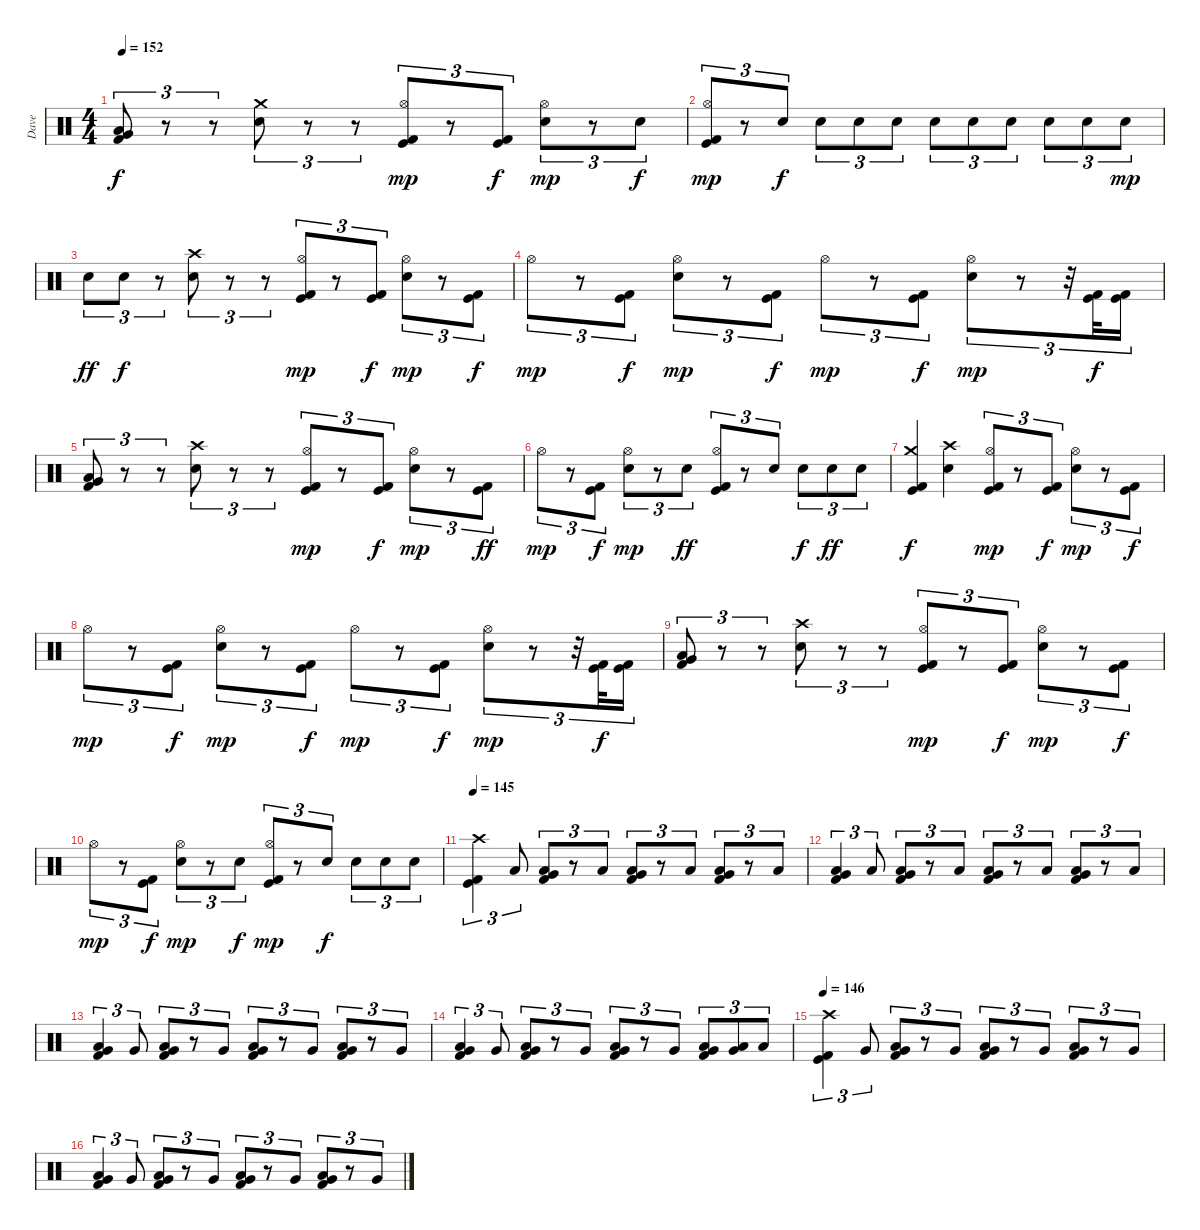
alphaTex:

\track ("Dave" "Dave") {instrument percussion}
\staff {score}
\articulation defaults
\ts (4 4)
\tempo 152
\clef neutral
\ks c
("Low Floor Tom (hit)" "Very Low Tom (hit)" "Kick (hit) 2").8{tu (3 2) dy f} r.8{tu (3 2)} r.8{tu (3 2)} ("Crash medium (hit)" "Electric Snare (hit)").8{tu (3 2)} r.8{tu (3 2)} r.8{tu (3 2)} ("Hi-Hat (open)" "Kick (hit)" "Kick (hit) 2").8{tu (3 2) dy mp} r.8{tu (3 2)} ("Kick (hit)" "Kick (hit) 2").8{tu (3 2) dy f} ("Hi-Hat (open)" "Electric Snare (hit)").8{tu (3 2) dy mp} r.8{tu (3 2)} "Electric Snare (hit)".8{tu (3 2) dy f} |
("Hi-Hat (open)" "Kick (hit)" "Kick (hit) 2").8{tu (3 2) dy mp} r.8{tu (3 2)} "Electric Snare (hit)".8{tu (3 2) dy f} "Electric Snare (hit)".8{tu (3 2)} "Electric Snare (hit)".8{tu (3 2)} "Electric Snare (hit)".8{tu (3 2)} "Electric Snare (hit)".8{tu (3 2)} "Electric Snare (hit)".8{tu (3 2)} "Electric Snare (hit)".8{tu (3 2)} "Electric Snare (hit)".8{tu (3 2)} "Electric Snare (hit)".8{tu (3 2)} "Electric Snare (hit)".8{tu (3 2) dy mp} |
"Electric Snare (hit)".8{tu (3 2) dy ff} "Electric Snare (hit)".8{tu (3 2) dy f} r.8{tu (3 2)} ("Crash high (hit)" "Electric Snare (hit)").8{tu (3 2)} r.8{tu (3 2)} r.8{tu (3 2)} ("Hi-Hat (open)" "Kick (hit)" "Kick (hit) 2").8{tu (3 2) dy mp} r.8{tu (3 2)} ("Kick (hit)" "Kick (hit) 2").8{tu (3 2) dy f} ("Hi-Hat (open)" "Electric Snare (hit)").8{tu (3 2) dy mp} r.8{tu (3 2)} ("Kick (hit)" "Kick (hit) 2").8{tu (3 2) dy f} |
"Hi-Hat (open)".8{tu (3 2) dy mp} r.8{tu (3 2)} ("Kick (hit)" "Kick (hit) 2").8{tu (3 2) dy f} ("Hi-Hat (open)" "Electric Snare (hit)").8{tu (3 2) dy mp} r.8{tu (3 2)} ("Kick (hit)" "Kick (hit) 2").8{tu (3 2) dy f} "Hi-Hat (open)".8{tu (3 2) dy mp} r.8{tu (3 2)} ("Kick (hit)" "Kick (hit) 2").8{tu (3 2) dy f} ("Hi-Hat (open)" "Electric Snare (hit)").8{tu (3 2) dy mp} r.8{tu (3 2)} r.32{tu (3 2)} ("Kick (hit)" "Kick (hit) 2").32{tu (3 2) dy f} ("Kick (hit)" "Kick (hit) 2").16{tu (3 2)} |
("Low Floor Tom (hit)" "Very Low Tom (hit)" "Kick (hit) 2").8{tu (3 2)} r.8{tu (3 2)} r.8{tu (3 2)} ("Crash high (hit)" "Electric Snare (hit)").8{tu (3 2)} r.8{tu (3 2)} r.8{tu (3 2)} ("Hi-Hat (open)" "Kick (hit)" "Kick (hit) 2").8{tu (3 2) dy mp} r.8{tu (3 2)} ("Kick (hit)" "Kick (hit) 2").8{tu (3 2) dy f} ("Hi-Hat (open)" "Electric Snare (hit)").8{tu (3 2) dy mp} r.8{tu (3 2)} ("Kick (hit)" "Kick (hit) 2").8{tu (3 2) dy ff} |
"Hi-Hat (open)".8{tu (3 2) dy mp} r.8{tu (3 2)} ("Kick (hit)" "Kick (hit) 2").8{tu (3 2) dy f} ("Hi-Hat (open)" "Electric Snare (hit)").8{tu (3 2) dy mp} r.8{tu (3 2)} "Electric Snare (hit)".8{tu (3 2) dy ff} ("Hi-Hat (open)" "Kick (hit)" "Kick (hit) 2").8{tu (3 2)} r.8{tu (3 2)} "Electric Snare (hit)".8{tu (3 2)} "Electric Snare (hit)".8{tu (3 2) dy f} "Electric Snare (hit)".8{tu (3 2) dy ff} "Electric Snare (hit)".8{tu (3 2)} |
("Crash medium (hit)" "Kick (hit)" "Kick (hit) 2").4{dy f} ("Crash high (hit)" "Electric Snare (hit)").4 ("Hi-Hat (open)" "Kick (hit)" "Kick (hit) 2").8{tu (3 2) dy mp} r.8{tu (3 2)} ("Kick (hit)" "Kick (hit) 2").8{tu (3 2) dy f} ("Hi-Hat (open)" "Electric Snare (hit)").8{tu (3 2) dy mp} r.8{tu (3 2)} ("Kick (hit)" "Kick (hit) 2").8{tu (3 2) dy f} |
"Hi-Hat (open)".8{tu (3 2) dy mp} r.8{tu (3 2)} ("Kick (hit)" "Kick (hit) 2").8{tu (3 2) dy f} ("Hi-Hat (open)" "Electric Snare (hit)").8{tu (3 2) dy mp} r.8{tu (3 2)} ("Kick (hit)" "Kick (hit) 2").8{tu (3 2) dy f} "Hi-Hat (open)".8{tu (3 2) dy mp} r.8{tu (3 2)} ("Kick (hit)" "Kick (hit) 2").8{tu (3 2) dy f} ("Hi-Hat (open)" "Electric Snare (hit)").8{tu (3 2) dy mp} r.8{tu (3 2)} r.32{tu (3 2)} ("Kick (hit)" "Kick (hit) 2").32{tu (3 2) dy f} ("Kick (hit)" "Kick (hit) 2").16{tu (3 2)} |
("Low Floor Tom (hit)" "Very Low Tom (hit)" "Kick (hit) 2").8{tu (3 2)} r.8{tu (3 2)} r.8{tu (3 2)} ("Crash high (hit)" "Electric Snare (hit)").8{tu (3 2)} r.8{tu (3 2)} r.8{tu (3 2)} ("Hi-Hat (open)" "Kick (hit)" "Kick (hit) 2").8{tu (3 2) dy mp} r.8{tu (3 2)} ("Kick (hit)" "Kick (hit) 2").8{tu (3 2) dy f} ("Hi-Hat (open)" "Electric Snare (hit)").8{tu (3 2) dy mp} r.8{tu (3 2)} ("Kick (hit)" "Kick (hit) 2").8{tu (3 2) dy f} |
"Hi-Hat (open)".8{tu (3 2) dy mp} r.8{tu (3 2)} ("Kick (hit)" "Kick (hit) 2").8{tu (3 2) dy f} ("Hi-Hat (open)" "Electric Snare (hit)").8{tu (3 2) dy mp} r.8{tu (3 2)} "Electric Snare (hit)".8{tu (3 2) dy f} ("Hi-Hat (open)" "Kick (hit)" "Kick (hit) 2").8{tu (3 2) dy mp} r.8{tu (3 2)} "Electric Snare (hit)".8{tu (3 2) dy f} "Electric Snare (hit)".8{tu (3 2)} "Electric Snare (hit)".8{tu (3 2)} "Electric Snare (hit)".8{tu (3 2)} |
\tempo 145
("Crash high (hit)" "Kick (hit)" "Kick (hit) 2").4{tu (3 2)} "Low Floor Tom (hit)".8{tu (3 2)} ("Low Floor Tom (hit)" "Very Low Tom (hit)" "Kick (hit) 2").8{tu (3 2) bd 120} r.8{tu (3 2)} "Low Floor Tom (hit)".8{tu (3 2)} ("Low Floor Tom (hit)" "Very Low Tom (hit)" "Kick (hit) 2").8{tu (3 2) bd 120} r.8{tu (3 2)} "Low Floor Tom (hit)".8{tu (3 2)} ("Low Floor Tom (hit)" "Very Low Tom (hit)" "Kick (hit) 2").8{tu (3 2) bd 120} r.8{tu (3 2)} "Low Floor Tom (hit)".8{tu (3 2)} |
("Low Floor Tom (hit)" "Very Low Tom (hit)" "Kick (hit) 2").4{tu (3 2) bd 120} "Low Floor Tom (hit)".8{tu (3 2)} ("Low Floor Tom (hit)" "Very Low Tom (hit)" "Kick (hit) 2").8{tu (3 2) bd 120} r.8{tu (3 2)} "Low Floor Tom (hit)".8{tu (3 2)} ("Low Floor Tom (hit)" "Very Low Tom (hit)" "Kick (hit) 2").8{tu (3 2) bd 120} r.8{tu (3 2)} "Low Floor Tom (hit)".8{tu (3 2)} ("Low Floor Tom (hit)" "Very Low Tom (hit)" "Kick (hit) 2").8{tu (3 2) bd 120} r.8{tu (3 2)} "Low Floor Tom (hit)".8{tu (3 2)} |
("Low Floor Tom (hit)" "Very Low Tom (hit)" "Kick (hit) 2").4{tu (3 2) bd 120} "Very Low Tom (hit)".8{tu (3 2)} ("Low Floor Tom (hit)" "Very Low Tom (hit)" "Kick (hit) 2").8{tu (3 2) bd 120} r.8{tu (3 2)} "Very Low Tom (hit)".8{tu (3 2)} ("Low Floor Tom (hit)" "Very Low Tom (hit)" "Kick (hit) 2").8{tu (3 2) bd 120} r.8{tu (3 2)} "Very Low Tom (hit)".8{tu (3 2)} ("Low Floor Tom (hit)" "Very Low Tom (hit)" "Kick (hit) 2").8{tu (3 2) bd 120} r.8{tu (3 2)} "Very Low Tom (hit)".8{tu (3 2)} |
("Low Floor Tom (hit)" "Very Low Tom (hit)" "Kick (hit) 2").4{tu (3 2) bd 120} "Very Low Tom (hit)".8{tu (3 2)} ("Low Floor Tom (hit)" "Very Low Tom (hit)" "Kick (hit) 2").8{tu (3 2) bd 120} r.8{tu (3 2)} "Very Low Tom (hit)".8{tu (3 2)} ("Low Floor Tom (hit)" "Very Low Tom (hit)" "Kick (hit) 2").8{tu (3 2) bd 120} r.8{tu (3 2)} "Very Low Tom (hit)".8{tu (3 2)} ("Low Floor Tom (hit)" "Very Low Tom (hit)" "Kick (hit) 2").8{tu (3 2) bd 120} ("Low Tom (hit)" "Very Low Tom (hit)").8{tu (3 2)} "Low Floor Tom (hit)".8{tu (3 2)} |
\tempo 146
("Crash high (hit)" "Kick (hit)" "Kick (hit) 2").4{tu (3 2)} "Very Low Tom (hit)".8{tu (3 2)} ("Low Floor Tom (hit)" "Very Low Tom (hit)" "Kick (hit) 2").8{tu (3 2) bd 120} r.8{tu (3 2)} "Very Low Tom (hit)".8{tu (3 2)} ("Low Floor Tom (hit)" "Very Low Tom (hit)" "Kick (hit) 2").8{tu (3 2) bd 120} r.8{tu (3 2)} "Very Low Tom (hit)".8{tu (3 2)} ("Low Floor Tom (hit)" "Very Low Tom (hit)" "Kick (hit) 2").8{tu (3 2) bd 120} r.8{tu (3 2)} "Very Low Tom (hit)".8{tu (3 2)} |
("Low Floor Tom (hit)" "Very Low Tom (hit)" "Kick (hit) 2").4{tu (3 2) bd 120} "Very Low Tom (hit)".8{tu (3 2)} ("Low Floor Tom (hit)" "Very Low Tom (hit)" "Kick (hit) 2").8{tu (3 2) bd 120} r.8{tu (3 2)} "Very Low Tom (hit)".8{tu (3 2)} ("Low Floor Tom (hit)" "Very Low Tom (hit)" "Kick (hit) 2").8{tu (3 2) bd 120} r.8{tu (3 2)} "Very Low Tom (hit)".8{tu (3 2)} ("Low Floor Tom (hit)" "Very Low Tom (hit)" "Kick (hit) 2").8{tu (3 2) bd 120} r.8{tu (3 2)} "Very Low Tom (hit)".8{tu (3 2)}
